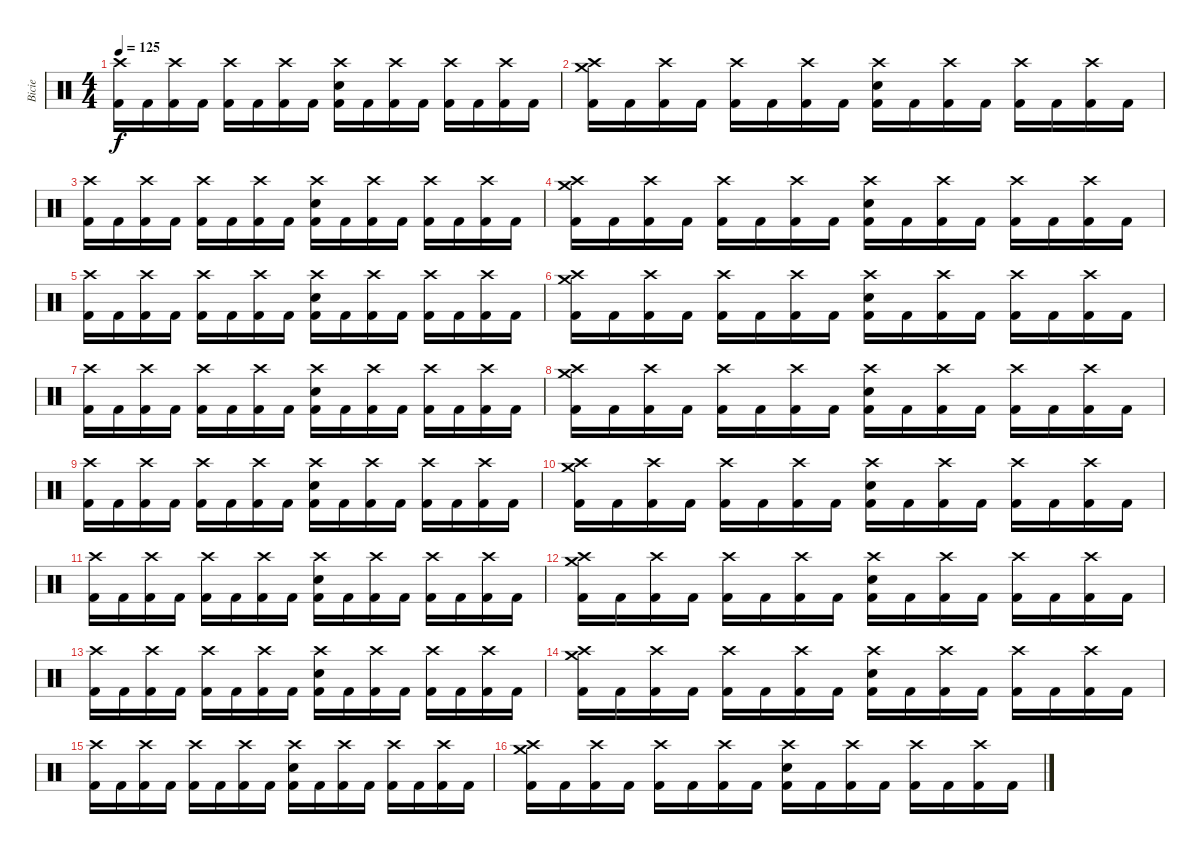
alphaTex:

\track ("Bicie" "Bicie") {instrument percussion}
\staff {score}
\articulation defaults
\ts (4 4)
\tempo 125
\clef neutral
\ks c
("Crash high (hit)" "Kick (hit) 2").16{dy f} "Kick (hit) 2".16 ("Crash high (hit)" "Kick (hit) 2").16 "Kick (hit) 2".16 ("Crash high (hit)" "Kick (hit) 2").16 "Kick (hit) 2".16 ("Crash high (hit)" "Kick (hit) 2").16 "Kick (hit) 2".16 ("Crash high (hit)" "Snare (hit) 2" "Kick (hit) 2").16 "Kick (hit) 2".16 ("Crash high (hit)" "Kick (hit) 2").16 "Kick (hit) 2".16 ("Crash high (hit)" "Kick (hit) 2").16 "Kick (hit) 2".16 ("Crash high (hit)" "Kick (hit) 2").16 "Kick (hit) 2".16 |
("Crash high (hit)" "Crash medium (hit)" "Kick (hit) 2").16 "Kick (hit) 2".16 ("Crash high (hit)" "Kick (hit) 2").16 "Kick (hit) 2".16 ("Crash high (hit)" "Kick (hit) 2").16 "Kick (hit) 2".16 ("Crash high (hit)" "Kick (hit) 2").16 "Kick (hit) 2".16 ("Crash high (hit)" "Snare (hit) 2" "Kick (hit) 2").16 "Kick (hit) 2".16 ("Crash high (hit)" "Kick (hit) 2").16 "Kick (hit) 2".16 ("Crash high (hit)" "Kick (hit) 2").16 "Kick (hit) 2".16 ("Crash high (hit)" "Kick (hit) 2").16 "Kick (hit) 2".16 |
("Crash high (hit)" "Kick (hit) 2").16 "Kick (hit) 2".16 ("Crash high (hit)" "Kick (hit) 2").16 "Kick (hit) 2".16 ("Crash high (hit)" "Kick (hit) 2").16 "Kick (hit) 2".16 ("Crash high (hit)" "Kick (hit) 2").16 "Kick (hit) 2".16 ("Crash high (hit)" "Snare (hit) 2" "Kick (hit) 2").16 "Kick (hit) 2".16 ("Crash high (hit)" "Kick (hit) 2").16 "Kick (hit) 2".16 ("Crash high (hit)" "Kick (hit) 2").16 "Kick (hit) 2".16 ("Crash high (hit)" "Kick (hit) 2").16 "Kick (hit) 2".16 |
("Crash high (hit)" "Crash medium (hit)" "Kick (hit) 2").16 "Kick (hit) 2".16 ("Crash high (hit)" "Kick (hit) 2").16 "Kick (hit) 2".16 ("Crash high (hit)" "Kick (hit) 2").16 "Kick (hit) 2".16 ("Crash high (hit)" "Kick (hit) 2").16 "Kick (hit) 2".16 ("Crash high (hit)" "Snare (hit) 2" "Kick (hit) 2").16 "Kick (hit) 2".16 ("Crash high (hit)" "Kick (hit) 2").16 "Kick (hit) 2".16 ("Crash high (hit)" "Kick (hit) 2").16 "Kick (hit) 2".16 ("Crash high (hit)" "Kick (hit) 2").16 "Kick (hit) 2".16 |
("Crash high (hit)" "Kick (hit) 2").16 "Kick (hit) 2".16 ("Crash high (hit)" "Kick (hit) 2").16 "Kick (hit) 2".16 ("Crash high (hit)" "Kick (hit) 2").16 "Kick (hit) 2".16 ("Crash high (hit)" "Kick (hit) 2").16 "Kick (hit) 2".16 ("Crash high (hit)" "Snare (hit) 2" "Kick (hit) 2").16 "Kick (hit) 2".16 ("Crash high (hit)" "Kick (hit) 2").16 "Kick (hit) 2".16 ("Crash high (hit)" "Kick (hit) 2").16 "Kick (hit) 2".16 ("Crash high (hit)" "Kick (hit) 2").16 "Kick (hit) 2".16 |
("Crash high (hit)" "Crash medium (hit)" "Kick (hit) 2").16 "Kick (hit) 2".16 ("Crash high (hit)" "Kick (hit) 2").16 "Kick (hit) 2".16 ("Crash high (hit)" "Kick (hit) 2").16 "Kick (hit) 2".16 ("Crash high (hit)" "Kick (hit) 2").16 "Kick (hit) 2".16 ("Crash high (hit)" "Snare (hit) 2" "Kick (hit) 2").16 "Kick (hit) 2".16 ("Crash high (hit)" "Kick (hit) 2").16 "Kick (hit) 2".16 ("Crash high (hit)" "Kick (hit) 2").16 "Kick (hit) 2".16 ("Crash high (hit)" "Kick (hit) 2").16 "Kick (hit) 2".16 |
("Crash high (hit)" "Kick (hit) 2").16 "Kick (hit) 2".16 ("Crash high (hit)" "Kick (hit) 2").16 "Kick (hit) 2".16 ("Crash high (hit)" "Kick (hit) 2").16 "Kick (hit) 2".16 ("Crash high (hit)" "Kick (hit) 2").16 "Kick (hit) 2".16 ("Crash high (hit)" "Snare (hit) 2" "Kick (hit) 2").16 "Kick (hit) 2".16 ("Crash high (hit)" "Kick (hit) 2").16 "Kick (hit) 2".16 ("Crash high (hit)" "Kick (hit) 2").16 "Kick (hit) 2".16 ("Crash high (hit)" "Kick (hit) 2").16 "Kick (hit) 2".16 |
("Crash high (hit)" "Crash medium (hit)" "Kick (hit) 2").16 "Kick (hit) 2".16 ("Crash high (hit)" "Kick (hit) 2").16 "Kick (hit) 2".16 ("Crash high (hit)" "Kick (hit) 2").16 "Kick (hit) 2".16 ("Crash high (hit)" "Kick (hit) 2").16 "Kick (hit) 2".16 ("Crash high (hit)" "Snare (hit) 2" "Kick (hit) 2").16 "Kick (hit) 2".16 ("Crash high (hit)" "Kick (hit) 2").16 "Kick (hit) 2".16 ("Crash high (hit)" "Kick (hit) 2").16 "Kick (hit) 2".16 ("Crash high (hit)" "Kick (hit) 2").16 "Kick (hit) 2".16 |
("Crash high (hit)" "Kick (hit) 2").16 "Kick (hit) 2".16 ("Crash high (hit)" "Kick (hit) 2").16 "Kick (hit) 2".16 ("Crash high (hit)" "Kick (hit) 2").16 "Kick (hit) 2".16 ("Crash high (hit)" "Kick (hit) 2").16 "Kick (hit) 2".16 ("Crash high (hit)" "Snare (hit) 2" "Kick (hit) 2").16 "Kick (hit) 2".16 ("Crash high (hit)" "Kick (hit) 2").16 "Kick (hit) 2".16 ("Crash high (hit)" "Kick (hit) 2").16 "Kick (hit) 2".16 ("Crash high (hit)" "Kick (hit) 2").16 "Kick (hit) 2".16 |
("Crash high (hit)" "Crash medium (hit)" "Kick (hit) 2").16 "Kick (hit) 2".16 ("Crash high (hit)" "Kick (hit) 2").16 "Kick (hit) 2".16 ("Crash high (hit)" "Kick (hit) 2").16 "Kick (hit) 2".16 ("Crash high (hit)" "Kick (hit) 2").16 "Kick (hit) 2".16 ("Crash high (hit)" "Snare (hit) 2" "Kick (hit) 2").16 "Kick (hit) 2".16 ("Crash high (hit)" "Kick (hit) 2").16 "Kick (hit) 2".16 ("Crash high (hit)" "Kick (hit) 2").16 "Kick (hit) 2".16 ("Crash high (hit)" "Kick (hit) 2").16 "Kick (hit) 2".16 |
("Crash high (hit)" "Kick (hit) 2").16 "Kick (hit) 2".16 ("Crash high (hit)" "Kick (hit) 2").16 "Kick (hit) 2".16 ("Crash high (hit)" "Kick (hit) 2").16 "Kick (hit) 2".16 ("Crash high (hit)" "Kick (hit) 2").16 "Kick (hit) 2".16 ("Crash high (hit)" "Snare (hit) 2" "Kick (hit) 2").16 "Kick (hit) 2".16 ("Crash high (hit)" "Kick (hit) 2").16 "Kick (hit) 2".16 ("Crash high (hit)" "Kick (hit) 2").16 "Kick (hit) 2".16 ("Crash high (hit)" "Kick (hit) 2").16 "Kick (hit) 2".16 |
("Crash high (hit)" "Crash medium (hit)" "Kick (hit) 2").16 "Kick (hit) 2".16 ("Crash high (hit)" "Kick (hit) 2").16 "Kick (hit) 2".16 ("Crash high (hit)" "Kick (hit) 2").16 "Kick (hit) 2".16 ("Crash high (hit)" "Kick (hit) 2").16 "Kick (hit) 2".16 ("Crash high (hit)" "Snare (hit) 2" "Kick (hit) 2").16 "Kick (hit) 2".16 ("Crash high (hit)" "Kick (hit) 2").16 "Kick (hit) 2".16 ("Crash high (hit)" "Kick (hit) 2").16 "Kick (hit) 2".16 ("Crash high (hit)" "Kick (hit) 2").16 "Kick (hit) 2".16 |
("Crash high (hit)" "Kick (hit) 2").16 "Kick (hit) 2".16 ("Crash high (hit)" "Kick (hit) 2").16 "Kick (hit) 2".16 ("Crash high (hit)" "Kick (hit) 2").16 "Kick (hit) 2".16 ("Crash high (hit)" "Kick (hit) 2").16 "Kick (hit) 2".16 ("Crash high (hit)" "Snare (hit) 2" "Kick (hit) 2").16 "Kick (hit) 2".16 ("Crash high (hit)" "Kick (hit) 2").16 "Kick (hit) 2".16 ("Crash high (hit)" "Kick (hit) 2").16 "Kick (hit) 2".16 ("Crash high (hit)" "Kick (hit) 2").16 "Kick (hit) 2".16 |
("Crash high (hit)" "Crash medium (hit)" "Kick (hit) 2").16 "Kick (hit) 2".16 ("Crash high (hit)" "Kick (hit) 2").16 "Kick (hit) 2".16 ("Crash high (hit)" "Kick (hit) 2").16 "Kick (hit) 2".16 ("Crash high (hit)" "Kick (hit) 2").16 "Kick (hit) 2".16 ("Crash high (hit)" "Snare (hit) 2" "Kick (hit) 2").16 "Kick (hit) 2".16 ("Crash high (hit)" "Kick (hit) 2").16 "Kick (hit) 2".16 ("Crash high (hit)" "Kick (hit) 2").16 "Kick (hit) 2".16 ("Crash high (hit)" "Kick (hit) 2").16 "Kick (hit) 2".16 |
("Crash high (hit)" "Kick (hit) 2").16 "Kick (hit) 2".16 ("Crash high (hit)" "Kick (hit) 2").16 "Kick (hit) 2".16 ("Crash high (hit)" "Kick (hit) 2").16 "Kick (hit) 2".16 ("Crash high (hit)" "Kick (hit) 2").16 "Kick (hit) 2".16 ("Crash high (hit)" "Snare (hit) 2" "Kick (hit) 2").16 "Kick (hit) 2".16 ("Crash high (hit)" "Kick (hit) 2").16 "Kick (hit) 2".16 ("Crash high (hit)" "Kick (hit) 2").16 "Kick (hit) 2".16 ("Crash high (hit)" "Kick (hit) 2").16 "Kick (hit) 2".16 |
("Crash high (hit)" "Crash medium (hit)" "Kick (hit) 2").16 "Kick (hit) 2".16 ("Crash high (hit)" "Kick (hit) 2").16 "Kick (hit) 2".16 ("Crash high (hit)" "Kick (hit) 2").16 "Kick (hit) 2".16 ("Crash high (hit)" "Kick (hit) 2").16 "Kick (hit) 2".16 ("Crash high (hit)" "Snare (hit) 2" "Kick (hit) 2").16 "Kick (hit) 2".16 ("Crash high (hit)" "Kick (hit) 2").16 "Kick (hit) 2".16 ("Crash high (hit)" "Kick (hit) 2").16 "Kick (hit) 2".16 ("Crash high (hit)" "Kick (hit) 2").16 "Kick (hit) 2".16
